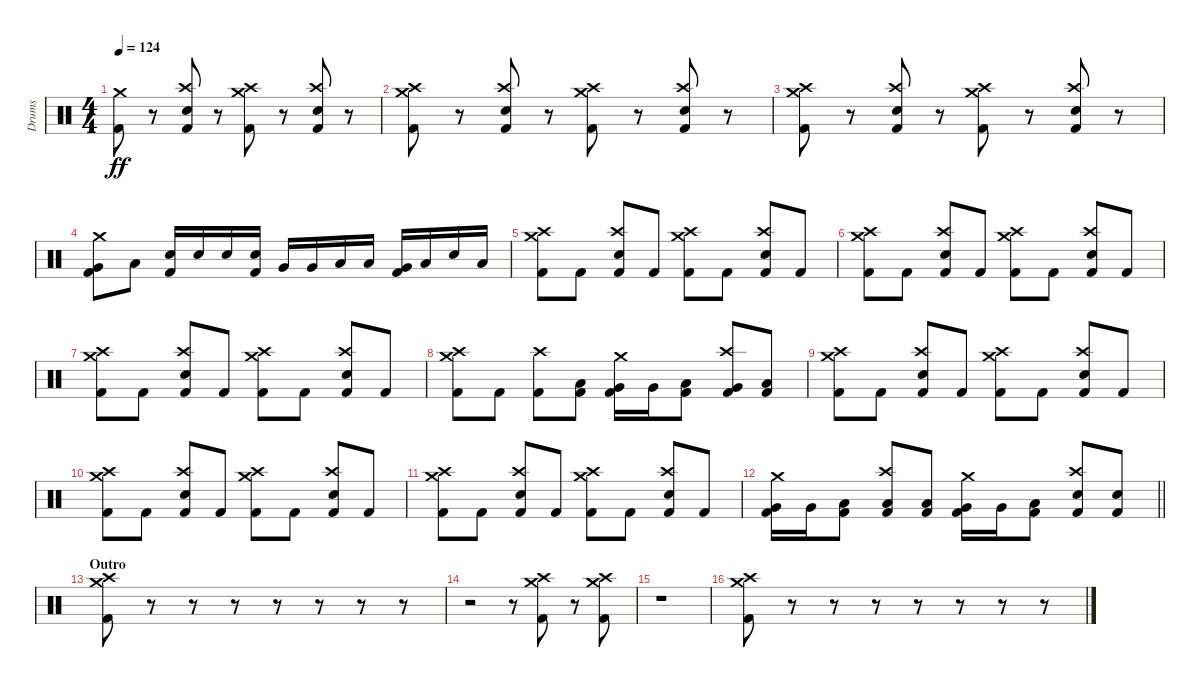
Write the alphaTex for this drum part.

\track ("Drums" "Drums") {instrument percussion}
\staff {score}
\articulation defaults
\ts (4 4)
\tempo 124
\clef neutral
\ks c
("Crash medium (hit)" "Kick (hit) 2").8{dy ff} r.8 ("Crash high (hit)" "Electric Snare (hit)" "Kick (hit) 2").8 r.8 ("Crash medium (hit)" "Crash high (hit)" "Kick (hit) 2").8 r.8 ("Crash high (hit)" "Electric Snare (hit)" "Kick (hit) 2").8 r.8 |
("Crash medium (hit)" "Crash high (hit)" "Kick (hit) 2").8 r.8 ("Crash high (hit)" "Electric Snare (hit)" "Kick (hit) 2").8 r.8 ("Crash medium (hit)" "Crash high (hit)" "Kick (hit) 2").8 r.8 ("Crash high (hit)" "Electric Snare (hit)" "Kick (hit) 2").8 r.8 |
("Crash medium (hit)" "Crash high (hit)" "Kick (hit) 2").8 r.8 ("Crash high (hit)" "Electric Snare (hit)" "Kick (hit) 2").8 r.8 ("Crash medium (hit)" "Crash high (hit)" "Kick (hit) 2").8 r.8 ("Crash high (hit)" "Electric Snare (hit)" "Kick (hit) 2").8 r.8 |
("Crash medium (hit)" "Very Low Tom (hit)" "Kick (hit) 2").8 "Low Floor Tom (hit)".8 ("Electric Snare (hit)" "Kick (hit) 2").16 "Electric Snare (hit)".16 "Electric Snare (hit)".16 ("Electric Snare (hit)" "Kick (hit) 2").16 "Very Low Tom (hit)".16 "Very Low Tom (hit)".16 "Low Floor Tom (hit)".16 "Low Floor Tom (hit)".16 ("Very Low Tom (hit)" "Kick (hit) 2").16 "Low Floor Tom (hit)".16 "Electric Snare (hit)".16 "Low Floor Tom (hit)".16 |
("Crash medium (hit)" "Crash high (hit)" "Kick (hit) 2").8 "Kick (hit) 2".8 ("Crash high (hit)" "Electric Snare (hit)" "Kick (hit) 2").8 "Kick (hit) 2".8 ("Crash medium (hit)" "Crash high (hit)" "Kick (hit) 2").8 "Kick (hit) 2".8 ("Crash high (hit)" "Electric Snare (hit)" "Kick (hit) 2").8 "Kick (hit) 2".8 |
("Crash medium (hit)" "Crash high (hit)" "Kick (hit) 2").8 "Kick (hit) 2".8 ("Crash high (hit)" "Electric Snare (hit)" "Kick (hit) 2").8 "Kick (hit) 2".8 ("Crash medium (hit)" "Crash high (hit)" "Kick (hit) 2").8 "Kick (hit) 2".8 ("Crash high (hit)" "Electric Snare (hit)" "Kick (hit) 2").8 "Kick (hit) 2".8 |
("Crash medium (hit)" "Crash high (hit)" "Kick (hit) 2").8 "Kick (hit) 2".8 ("Crash high (hit)" "Electric Snare (hit)" "Kick (hit) 2").8 "Kick (hit) 2".8 ("Crash medium (hit)" "Crash high (hit)" "Kick (hit) 2").8 "Kick (hit) 2".8 ("Crash high (hit)" "Electric Snare (hit)" "Kick (hit) 2").8 "Kick (hit) 2".8 |
("Crash medium (hit)" "Crash high (hit)" "Kick (hit) 2").8 "Kick (hit) 2".8 ("Crash high (hit)" "Kick (hit) 2").8 ("Low Floor Tom (hit)" "Kick (hit) 2").8 ("Crash medium (hit)" "Very Low Tom (hit)" "Kick (hit) 2").16 "Very Low Tom (hit)".16 ("Low Floor Tom (hit)" "Kick (hit) 2").8 ("Crash high (hit)" "Very Low Tom (hit)" "Kick (hit) 2").8 ("Low Floor Tom (hit)" "Kick (hit) 2").8 |
("Crash medium (hit)" "Crash high (hit)" "Kick (hit) 2").8 "Kick (hit) 2".8 ("Crash high (hit)" "Electric Snare (hit)" "Kick (hit) 2").8 "Kick (hit) 2".8 ("Crash medium (hit)" "Crash high (hit)" "Kick (hit) 2").8 "Kick (hit) 2".8 ("Crash high (hit)" "Electric Snare (hit)" "Kick (hit) 2").8 "Kick (hit) 2".8 |
("Crash medium (hit)" "Crash high (hit)" "Kick (hit) 2").8 "Kick (hit) 2".8 ("Crash high (hit)" "Electric Snare (hit)" "Kick (hit) 2").8 "Kick (hit) 2".8 ("Crash medium (hit)" "Crash high (hit)" "Kick (hit) 2").8 "Kick (hit) 2".8 ("Crash high (hit)" "Electric Snare (hit)" "Kick (hit) 2").8 "Kick (hit) 2".8 |
("Crash medium (hit)" "Crash high (hit)" "Kick (hit) 2").8 "Kick (hit) 2".8 ("Crash high (hit)" "Electric Snare (hit)" "Kick (hit) 2").8 "Kick (hit) 2".8 ("Crash medium (hit)" "Crash high (hit)" "Kick (hit) 2").8 "Kick (hit) 2".8 ("Crash high (hit)" "Electric Snare (hit)" "Kick (hit) 2").8 "Kick (hit) 2".8 |
\barLineRight lightlight
("Crash medium (hit)" "Very Low Tom (hit)" "Kick (hit) 2").16 "Very Low Tom (hit)".16 ("Low Floor Tom (hit)" "Kick (hit) 2").8 ("Crash high (hit)" "Low Floor Tom (hit)" "Kick (hit) 2").8 ("Low Floor Tom (hit)" "Kick (hit) 2").8 ("Crash medium (hit)" "Very Low Tom (hit)" "Kick (hit) 2").16 "Very Low Tom (hit)".16 ("Low Floor Tom (hit)" "Kick (hit) 2").8 ("Crash high (hit)" "Electric Snare (hit)" "Kick (hit) 2").8 ("Electric Snare (hit)" "Kick (hit) 2").8 |
\section ("" "Outro")
("Crash medium (hit)" "Crash high (hit)" "Kick (hit) 2").8 r.8 r.8 r.8 r.8 r.8 r.8 r.8 |
r.2 r.8 ("Crash medium (hit)" "Crash high (hit)" "Kick (hit) 2").8 r.8 ("Crash medium (hit)" "Crash high (hit)" "Kick (hit) 2").8 |
r.1 |
("Crash medium (hit)" "Crash high (hit)" "Kick (hit) 2").8 r.8 r.8 r.8 r.8 r.8 r.8 r.8
